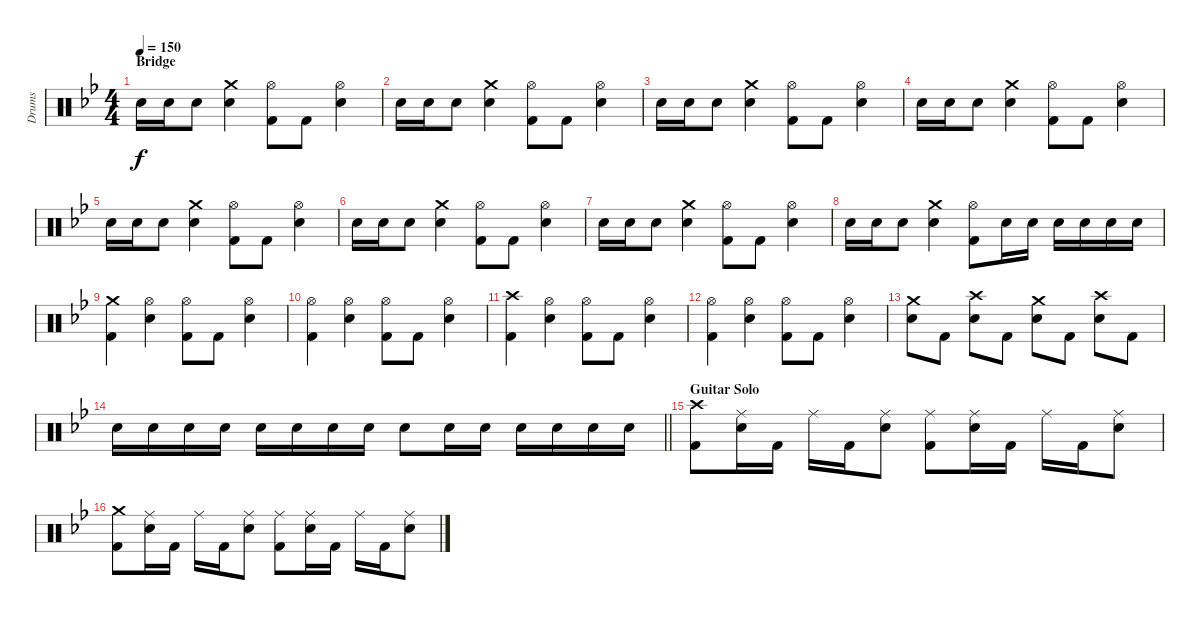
\track ("Drums" "Drums") {instrument percussion}
\staff {score}
\articulation defaults
\ts (4 4)
\section ("" "Bridge")
\tempo 150
\clef neutral
\ks bb "Snare (hit) 2".16{dy f} "Snare (hit) 2".16 "Snare (hit) 2".8
("Crash medium (hit)" "Snare (hit) 2").4 ("Hi-Hat (open)" "Kick (hit) 2").8 "Kick (hit) 2".8 ("Hi-Hat (open)" "Snare (hit) 2").4 |
"Snare (hit) 2".16 "Snare (hit) 2".16 "Snare (hit) 2".8 ("Crash medium (hit)" "Snare (hit) 2").4 ("Hi-Hat (open)" "Kick (hit) 2").8 "Kick (hit) 2".8 ("Hi-Hat (open)" "Snare (hit) 2").4 |
"Snare (hit) 2".16 "Snare (hit) 2".16 "Snare (hit) 2".8 ("Crash medium (hit)" "Snare (hit) 2").4 ("Hi-Hat (open)" "Kick (hit) 2").8 "Kick (hit) 2".8 ("Hi-Hat (open)" "Snare (hit) 2").4 |
"Snare (hit) 2".16 "Snare (hit) 2".16 "Snare (hit) 2".8 ("Crash medium (hit)" "Snare (hit) 2").4 ("Hi-Hat (open)" "Kick (hit) 2").8 "Kick (hit) 2".8 ("Hi-Hat (open)" "Snare (hit) 2").4 |
"Snare (hit) 2".16 "Snare (hit) 2".16 "Snare (hit) 2".8 ("Crash medium (hit)" "Snare (hit) 2").4 ("Hi-Hat (open)" "Kick (hit) 2").8 "Kick (hit) 2".8 ("Hi-Hat (open)" "Snare (hit) 2").4 |
"Snare (hit) 2".16 "Snare (hit) 2".16 "Snare (hit) 2".8 ("Crash medium (hit)" "Snare (hit) 2").4 ("Hi-Hat (open)" "Kick (hit) 2").8 "Kick (hit) 2".8 ("Hi-Hat (open)" "Snare (hit) 2").4 |
"Snare (hit) 2".16 "Snare (hit) 2".16 "Snare (hit) 2".8 ("Crash medium (hit)" "Snare (hit) 2").4 ("Hi-Hat (open)" "Kick (hit) 2").8 "Kick (hit) 2".8 ("Hi-Hat (open)" "Snare (hit) 2").4 |
"Snare (hit) 2".16 "Snare (hit) 2".16 "Snare (hit) 2".8 ("Crash medium (hit)" "Snare (hit) 2").4 ("Hi-Hat (open)" "Kick (hit) 2").8 "Snare (hit) 2".16 "Snare (hit) 2".16 "Snare (hit) 2".16 "Snare (hit) 2".16 "Snare (hit) 2".16 "Snare (hit) 2".16 |
("Crash medium (hit)" "Kick (hit) 2").4 ("Hi-Hat (open)" "Snare (hit) 2").4 ("Hi-Hat (open)" "Kick (hit) 2").8 "Kick (hit) 2".8 ("Hi-Hat (open)" "Snare (hit) 2").4 |
("Hi-Hat (open)" "Kick (hit) 2").4 ("Hi-Hat (open)" "Snare (hit) 2").4 ("Hi-Hat (open)" "Kick (hit) 2").8 "Kick (hit) 2".8 ("Hi-Hat (open)" "Snare (hit) 2").4 |
("Crash high (hit)" "Kick (hit) 2").4 ("Hi-Hat (open)" "Snare (hit) 2").4 ("Hi-Hat (open)" "Kick (hit) 2").8 "Kick (hit) 2".8 ("Hi-Hat (open)" "Snare (hit) 2").4 |
("Hi-Hat (open)" "Kick (hit) 2").4 ("Hi-Hat (open)" "Snare (hit) 2").4 ("Hi-Hat (open)" "Kick (hit) 2").8 "Kick (hit) 2".8 ("Hi-Hat (open)" "Snare (hit) 2").4 |
("Crash medium (hit)" "Snare (hit) 2").8 "Kick (hit) 2".8 ("Crash high (hit)" "Snare (hit) 2").8 "Kick (hit) 2".8 ("Crash medium (hit)" "Snare (hit) 2").8 "Kick (hit) 2".8 ("Crash high (hit)" "Snare (hit) 2").8 "Kick (hit) 2".8 |
\barLineRight lightlight "Snare (hit) 2".16 "Snare (hit) 2".16 "Snare (hit) 2".16 "Snare (hit) 2".16 "Snare (hit) 2".16 "Snare (hit) 2".16 "Snare (hit) 2".16 "Snare (hit) 2".16 "Snare (hit) 2".8 "Snare (hit) 2".16 "Snare (hit) 2".16 "Snare (hit) 2".16 "Snare (hit) 2".16 "Snare (hit) 2".16 "Snare (hit) 2".16
|
\section ("" "Guitar Solo")
("Crash high (hit)" "Kick (hit) 2").8 ("Ride (middle)" "Snare (hit) 2").16 "Kick (hit) 2".16 "Ride (middle)".16 "Kick (hit) 2".16 ("Ride (middle)" "Snare (hit) 2").8 ("Ride (middle)" "Kick (hit) 2").8 ("Ride (middle)" "Snare (hit) 2").16 "Kick (hit) 2".16 "Ride (middle)".16 "Kick (hit) 2".16 ("Ride (middle)" "Snare (hit) 2").8 |
("Crash medium (hit)" "Kick (hit) 2").8 ("Ride (middle)" "Snare (hit) 2").16 "Kick (hit) 2".16 "Ride (middle)".16 "Kick (hit) 2".16 ("Ride (middle)" "Snare (hit) 2").8 ("Ride (middle)" "Kick (hit) 2").8 ("Ride (middle)" "Snare (hit) 2").16 "Kick (hit) 2".16 "Ride (middle)".16 "Kick (hit) 2".16 ("Ride (middle)" "Snare (hit) 2").8
